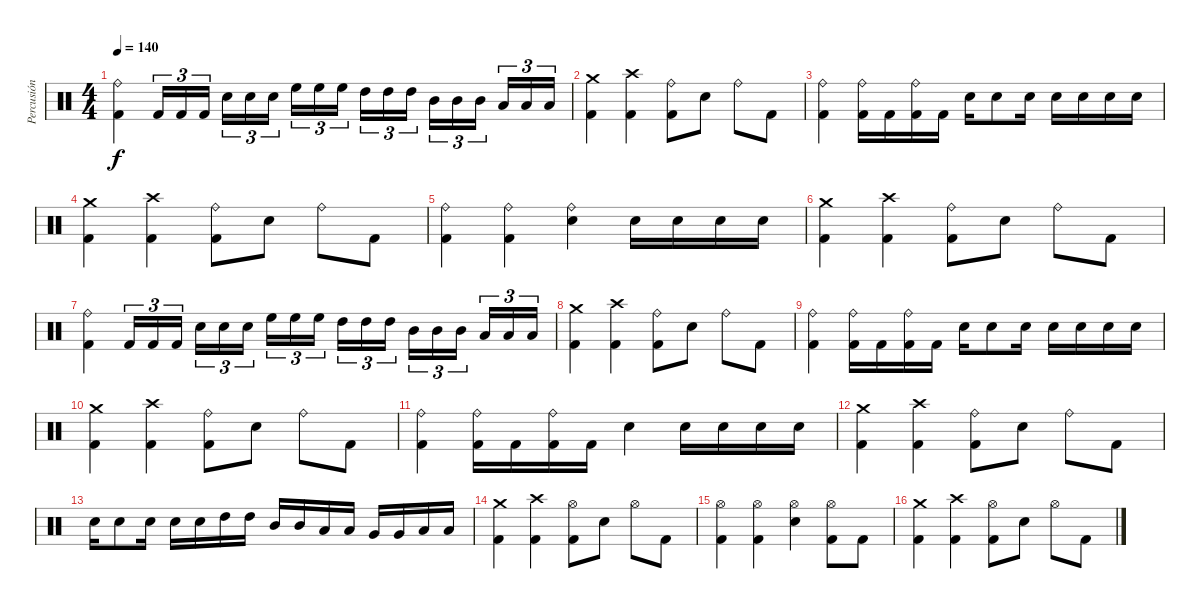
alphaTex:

\track ("Percusión" "Percusión") {instrument percussion}
\staff {score}
\articulation defaults
\ts (4 4)
\tempo 140
\clef neutral
\ks c
("Ride (bell)" "Kick (hit) 2").4{dy f} "Kick (hit) 2".16{tu (3 2)} "Kick (hit) 2".16{tu (3 2)} "Kick (hit) 2".16{tu (3 2) beam splitsecondary} "Electric Snare (hit)".16{tu (3 2)} "Electric Snare (hit)".16{tu (3 2)} "Electric Snare (hit)".16{tu (3 2)} "High Floor Tom (hit)".16{tu (3 2)} "High Floor Tom (hit)".16{tu (3 2)} "High Floor Tom (hit)".16{tu (3 2) beam splitsecondary} "High Tom (hit)".16{tu (3 2)} "High Tom (hit)".16{tu (3 2)} "High Tom (hit)".16{tu (3 2)} "Mid Tom (hit)".16{tu (3 2)} "Mid Tom (hit)".16{tu (3 2)} "Mid Tom (hit)".16{tu (3 2) beam splitsecondary} "Low Tom (hit)".16{tu (3 2)} "Low Tom (hit)".16{tu (3 2)} "Low Tom (hit)".16{tu (3 2)} |
("Crash medium (hit)" "Kick (hit) 2").4 ("Crash high (hit)" "Kick (hit) 2").4 ("Ride (bell)" "Kick (hit) 2").8 "Electric Snare (hit)".8 "Ride (bell)".8 "Kick (hit) 2".8 |
("Ride (bell)" "Kick (hit) 2").4 ("Ride (bell)" "Kick (hit) 2").16 "Kick (hit) 2".16 ("Ride (bell)" "Kick (hit) 2").16 "Kick (hit) 2".16 "Electric Snare (hit)".16 "Electric Snare (hit)".8 "Electric Snare (hit)".16 "Electric Snare (hit)".16 "Electric Snare (hit)".16 "Electric Snare (hit)".16 "Electric Snare (hit)".16 |
("Crash medium (hit)" "Kick (hit) 2").4 ("Crash high (hit)" "Kick (hit) 2").4 ("Ride (bell)" "Kick (hit) 2").8 "Electric Snare (hit)".8 "Ride (bell)".8 "Kick (hit) 2".8 |
("Ride (bell)" "Kick (hit) 2").4 ("Ride (bell)" "Kick (hit) 2").4 ("Ride (bell)" "Electric Snare (hit)").4 "Electric Snare (hit)".16 "Electric Snare (hit)".16 "Electric Snare (hit)".16 "Electric Snare (hit)".16 |
("Crash medium (hit)" "Kick (hit) 2").4 ("Crash high (hit)" "Kick (hit) 2").4 ("Ride (bell)" "Kick (hit) 2").8 "Electric Snare (hit)".8 "Ride (bell)".8 "Kick (hit) 2".8 |
("Ride (bell)" "Kick (hit) 2").4 "Kick (hit) 2".16{tu (3 2)} "Kick (hit) 2".16{tu (3 2)} "Kick (hit) 2".16{tu (3 2) beam splitsecondary} "Electric Snare (hit)".16{tu (3 2)} "Electric Snare (hit)".16{tu (3 2)} "Electric Snare (hit)".16{tu (3 2)} "High Floor Tom (hit)".16{tu (3 2)} "High Floor Tom (hit)".16{tu (3 2)} "High Floor Tom (hit)".16{tu (3 2) beam splitsecondary} "High Tom (hit)".16{tu (3 2)} "High Tom (hit)".16{tu (3 2)} "High Tom (hit)".16{tu (3 2)} "Mid Tom (hit)".16{tu (3 2)} "Mid Tom (hit)".16{tu (3 2)} "Mid Tom (hit)".16{tu (3 2) beam splitsecondary} "Low Tom (hit)".16{tu (3 2)} "Low Tom (hit)".16{tu (3 2)} "Low Tom (hit)".16{tu (3 2)} |
("Crash medium (hit)" "Kick (hit) 2").4 ("Crash high (hit)" "Kick (hit) 2").4 ("Ride (bell)" "Kick (hit) 2").8 "Electric Snare (hit)".8 "Ride (bell)".8 "Kick (hit) 2".8 |
("Ride (bell)" "Kick (hit) 2").4 ("Ride (bell)" "Kick (hit) 2").16 "Kick (hit) 2".16 ("Ride (bell)" "Kick (hit) 2").16 "Kick (hit) 2".16 "Electric Snare (hit)".16 "Electric Snare (hit)".8 "Electric Snare (hit)".16 "Electric Snare (hit)".16 "Electric Snare (hit)".16 "Electric Snare (hit)".16 "Electric Snare (hit)".16 |
("Crash medium (hit)" "Kick (hit) 2").4 ("Crash high (hit)" "Kick (hit) 2").4 ("Ride (bell)" "Kick (hit) 2").8 "Electric Snare (hit)".8 "Ride (bell)".8 "Kick (hit) 2".8 |
("Ride (bell)" "Kick (hit) 2").4 ("Ride (bell)" "Kick (hit) 2").16 "Kick (hit) 2".16 ("Ride (bell)" "Kick (hit) 2").16 "Kick (hit) 2".16 "Electric Snare (hit)".4 "Electric Snare (hit)".16 "Electric Snare (hit)".16 "Electric Snare (hit)".16 "Electric Snare (hit)".16 |
("Crash medium (hit)" "Kick (hit) 2").4 ("Crash high (hit)" "Kick (hit) 2").4 ("Ride (bell)" "Kick (hit) 2").8 "Electric Snare (hit)".8 "Ride (bell)".8 "Kick (hit) 2".8 |
"Electric Snare (hit)".16 "Electric Snare (hit)".8 "Electric Snare (hit)".16 "Electric Snare (hit)".16 "Electric Snare (hit)".16 "High Tom (hit)".16 "High Tom (hit)".16 "Mid Tom (hit)".16 "Mid Tom (hit)".16 "Low Tom (hit)".16 "Low Tom (hit)".16 "Very Low Tom (hit)".16 "Very Low Tom (hit)".16 "Low Floor Tom (hit)".16 "Low Floor Tom (hit)".16 |
("Crash medium (hit)" "Kick (hit) 2").4 ("Crash high (hit)" "Kick (hit) 2").4 ("Hi-Hat (open)" "Kick (hit) 2").8 "Electric Snare (hit)".8 "Hi-Hat (open)".8 "Kick (hit) 2".8 |
("Hi-Hat (open)" "Kick (hit) 2").4 ("Hi-Hat (open)" "Kick (hit) 2").4 ("Hi-Hat (open)" "Electric Snare (hit)").4 ("Hi-Hat (open)" "Kick (hit) 2").8 "Kick (hit) 2".8 |
("Crash medium (hit)" "Kick (hit) 2").4 ("Crash high (hit)" "Kick (hit) 2").4 ("Hi-Hat (open)" "Kick (hit) 2").8 "Electric Snare (hit)".8 "Hi-Hat (open)".8 "Kick (hit) 2".8
